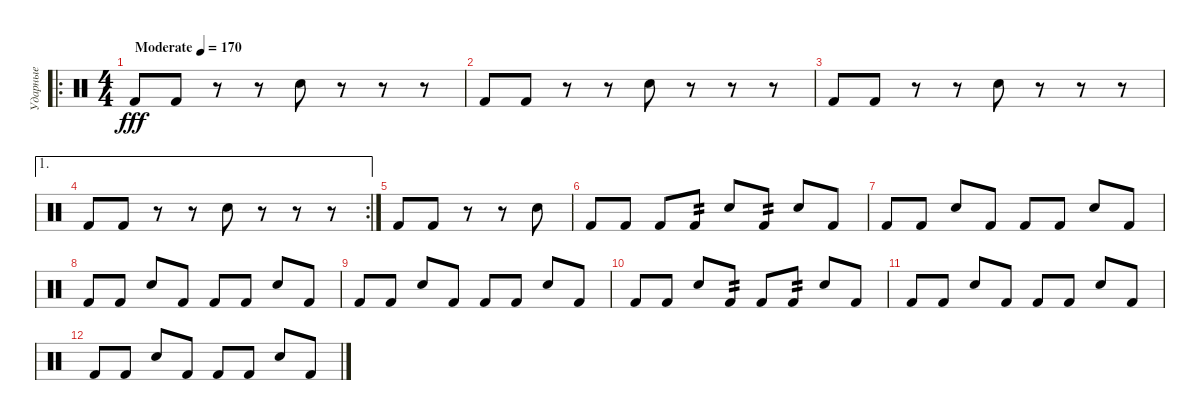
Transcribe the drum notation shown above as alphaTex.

\track ("Ударные" "Ударные") {instrument percussion}
\staff {score}
\articulation defaults
\ro
\ts (4 4)
\tempo (170 "Moderate")
\clef neutral
\ks c "Kick (hit) 2".8{dy fff} "Kick (hit) 2".8
r.8 r.8 "Snare (hit) 2".8 r.8 r.8 r.8 |
"Kick (hit) 2".8 "Kick (hit) 2".8 r.8 r.8 "Snare (hit) 2".8 r.8 r.8 r.8 |
"Kick (hit) 2".8 "Kick (hit) 2".8 r.8 r.8 "Snare (hit) 2".8 r.8 r.8 r.8 |
\ae 1
\rc 2 "Kick (hit) 2".8 "Kick (hit) 2".8
r.8 r.8 "Snare (hit) 2".8 r.8 r.8 r.8 |
"Kick (hit) 2".8 "Kick (hit) 2".8 r.8 r.8 "Snare (hit) 2".8 |
"Kick (hit) 2".8 "Kick (hit) 2".8 "Kick (hit) 2".8 "Kick (hit) 2".8{tp 2} "Snare (hit) 2".8 "Kick (hit) 2".8{tp 2} "Snare (hit) 2".8 "Kick (hit) 2".8 |
"Kick (hit) 2".8 "Kick (hit) 2".8 "Snare (hit) 2".8 "Kick (hit) 2".8 "Kick (hit) 2".8 "Kick (hit) 2".8 "Snare (hit) 2".8 "Kick (hit) 2".8 |
"Kick (hit) 2".8 "Kick (hit) 2".8 "Snare (hit) 2".8 "Kick (hit) 2".8 "Kick (hit) 2".8 "Kick (hit) 2".8 "Snare (hit) 2".8 "Kick (hit) 2".8 |
"Kick (hit) 2".8 "Kick (hit) 2".8 "Snare (hit) 2".8 "Kick (hit) 2".8 "Kick (hit) 2".8 "Kick (hit) 2".8 "Snare (hit) 2".8 "Kick (hit) 2".8 |
"Kick (hit) 2".8 "Kick (hit) 2".8 "Snare (hit) 2".8 "Kick (hit) 2".8{tp 2} "Kick (hit) 2".8 "Kick (hit) 2".8{tp 2} "Snare (hit) 2".8 "Kick (hit) 2".8 |
"Kick (hit) 2".8 "Kick (hit) 2".8 "Snare (hit) 2".8 "Kick (hit) 2".8 "Kick (hit) 2".8 "Kick (hit) 2".8 "Snare (hit) 2".8 "Kick (hit) 2".8 |
"Kick (hit) 2".8 "Kick (hit) 2".8 "Snare (hit) 2".8 "Kick (hit) 2".8 "Kick (hit) 2".8 "Kick (hit) 2".8 "Snare (hit) 2".8 "Kick (hit) 2".8
